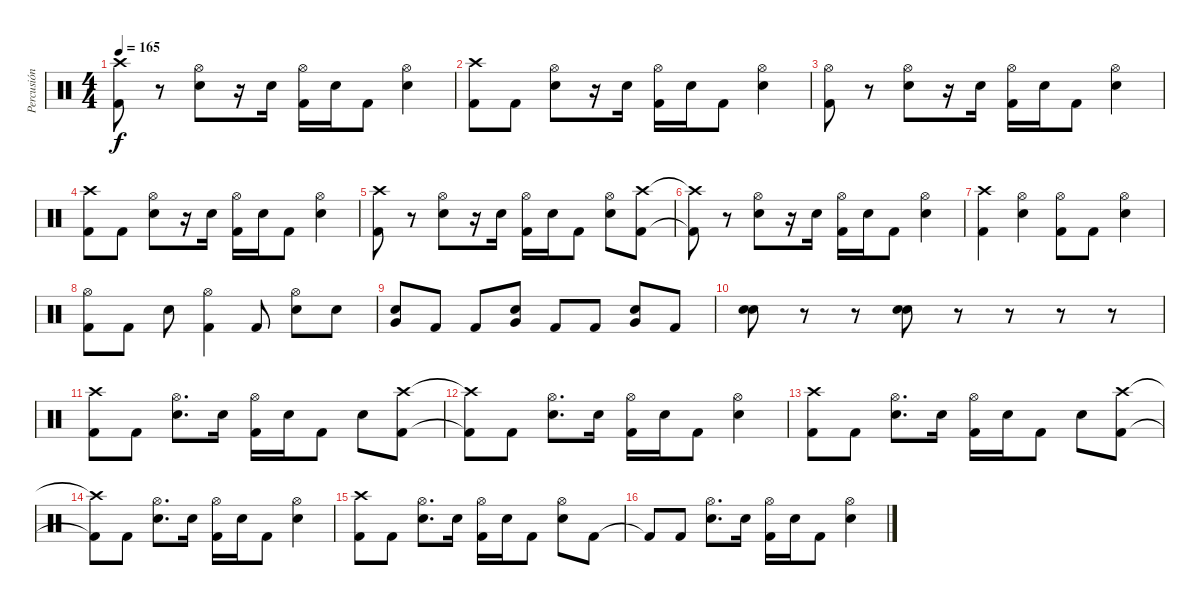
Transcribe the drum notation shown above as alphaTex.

\track ("Percusión" "Percusión") {instrument percussion}
\staff {score}
\articulation defaults
\ts (4 4)
\tempo 165
\clef neutral
\ks c
("Crash high (hit)" "Kick (hit) 2").8{dy f} r.8 ("Hi-Hat (open)" "Electric Snare (hit)").8 r.16 "Electric Snare (hit)".16 ("Hi-Hat (open)" "Kick (hit) 2").16 "Electric Snare (hit)".16 "Kick (hit) 2".8 ("Hi-Hat (open)" "Electric Snare (hit)").4 |
("Crash high (hit)" "Kick (hit) 2").8 "Kick (hit) 2".8 ("Hi-Hat (open)" "Electric Snare (hit)").8 r.16 "Electric Snare (hit)".16 ("Hi-Hat (open)" "Kick (hit) 2").16 "Electric Snare (hit)".16 "Kick (hit) 2".8 ("Hi-Hat (open)" "Electric Snare (hit)").4 |
("Hi-Hat (open)" "Kick (hit) 2").8 r.8 ("Hi-Hat (open)" "Electric Snare (hit)").8 r.16 "Electric Snare (hit)".16 ("Hi-Hat (open)" "Kick (hit) 2").16 "Electric Snare (hit)".16 "Kick (hit) 2".8 ("Hi-Hat (open)" "Electric Snare (hit)").4 |
("Crash high (hit)" "Kick (hit) 2").8 "Kick (hit) 2".8 ("Hi-Hat (open)" "Electric Snare (hit)").8 r.16 "Electric Snare (hit)".16 ("Hi-Hat (open)" "Kick (hit) 2").16 "Electric Snare (hit)".16 "Kick (hit) 2".8 ("Hi-Hat (open)" "Electric Snare (hit)").4 |
("Crash high (hit)" "Kick (hit) 2").8 r.8 ("Hi-Hat (open)" "Electric Snare (hit)").8 r.16 "Electric Snare (hit)".16 ("Hi-Hat (open)" "Kick (hit) 2").16 "Electric Snare (hit)".16 "Kick (hit) 2".8 ("Hi-Hat (open)" "Electric Snare (hit)").8 ("Crash high (hit)" "Kick (hit) 2").8 |
("Crash high (hit)"{t} "Kick (hit) 2"{t}).8 r.8 ("Hi-Hat (open)" "Electric Snare (hit)").8 r.16 "Electric Snare (hit)".16 ("Hi-Hat (open)" "Kick (hit) 2").16 "Electric Snare (hit)".16 "Kick (hit) 2".8 ("Hi-Hat (open)" "Electric Snare (hit)").4 |
("Crash high (hit)" "Kick (hit) 2").4 ("Hi-Hat (open)" "Electric Snare (hit)").4 ("Hi-Hat (open)" "Kick (hit) 2").8 "Kick (hit) 2".8 ("Hi-Hat (open)" "Electric Snare (hit)").4 |
("Hi-Hat (open)" "Kick (hit) 2").8 "Kick (hit) 2".8 "Electric Snare (hit)".8 ("Hi-Hat (open)" "Kick (hit) 2").4 "Kick (hit) 2".8 ("Hi-Hat (open)" "Electric Snare (hit)").8 "Electric Snare (hit)".8 |
("Very Low Tom (hit)" "Electric Snare (hit)").8 "Kick (hit) 2".8 "Kick (hit) 2".8 ("Very Low Tom (hit)" "Electric Snare (hit)").8 "Kick (hit) 2".8 "Kick (hit) 2".8 ("Very Low Tom (hit)" "Electric Snare (hit)").8 "Kick (hit) 2".8 |
("Electric Snare (hit)" "Electric Snare (hit)").8{bd 240} r.8 r.8 ("Electric Snare (hit)" "Electric Snare (hit)").8{bd 240} r.8 r.8 r.8 r.8 |
("Crash high (hit)" "Kick (hit) 2").8 "Kick (hit) 2".8 ("Hi-Hat (open)" "Electric Snare (hit)").8{d} "Electric Snare (hit)".16 ("Hi-Hat (open)" "Kick (hit) 2").16 "Electric Snare (hit)".16 "Kick (hit) 2".8 "Electric Snare (hit)".8 ("Crash high (hit)" "Kick (hit) 2").8 |
("Crash high (hit)"{t} "Kick (hit) 2"{t}).8 "Kick (hit) 2".8 ("Hi-Hat (open)" "Electric Snare (hit)").8{d} "Electric Snare (hit)".16 ("Hi-Hat (open)" "Kick (hit) 2").16 "Electric Snare (hit)".16 "Kick (hit) 2".8 ("Hi-Hat (open)" "Electric Snare (hit)").4 |
("Crash high (hit)" "Kick (hit) 2").8 "Kick (hit) 2".8 ("Hi-Hat (open)" "Electric Snare (hit)").8{d} "Electric Snare (hit)".16 ("Hi-Hat (open)" "Kick (hit) 2").16 "Electric Snare (hit)".16 "Kick (hit) 2".8 "Electric Snare (hit)".8 ("Crash high (hit)" "Kick (hit) 2").8 |
("Crash high (hit)"{t} "Kick (hit) 2"{t}).8 "Kick (hit) 2".8 ("Hi-Hat (open)" "Electric Snare (hit)").8{d} "Electric Snare (hit)".16 ("Hi-Hat (open)" "Kick (hit) 2").16 "Electric Snare (hit)".16 "Kick (hit) 2".8 ("Hi-Hat (open)" "Electric Snare (hit)").4 |
("Crash high (hit)" "Kick (hit) 2").8 "Kick (hit) 2".8 ("Hi-Hat (open)" "Electric Snare (hit)").8{d} "Electric Snare (hit)".16 ("Hi-Hat (open)" "Kick (hit) 2").16 "Electric Snare (hit)".16 "Kick (hit) 2".8 ("Hi-Hat (open)" "Electric Snare (hit)").8 "Kick (hit) 2".8 |
"Kick (hit) 2"{t}.8 "Kick (hit) 2".8 ("Hi-Hat (open)" "Electric Snare (hit)").8{d} "Electric Snare (hit)".16 ("Hi-Hat (open)" "Kick (hit) 2").16 "Electric Snare (hit)".16 "Kick (hit) 2".8 ("Hi-Hat (open)" "Electric Snare (hit)").4
